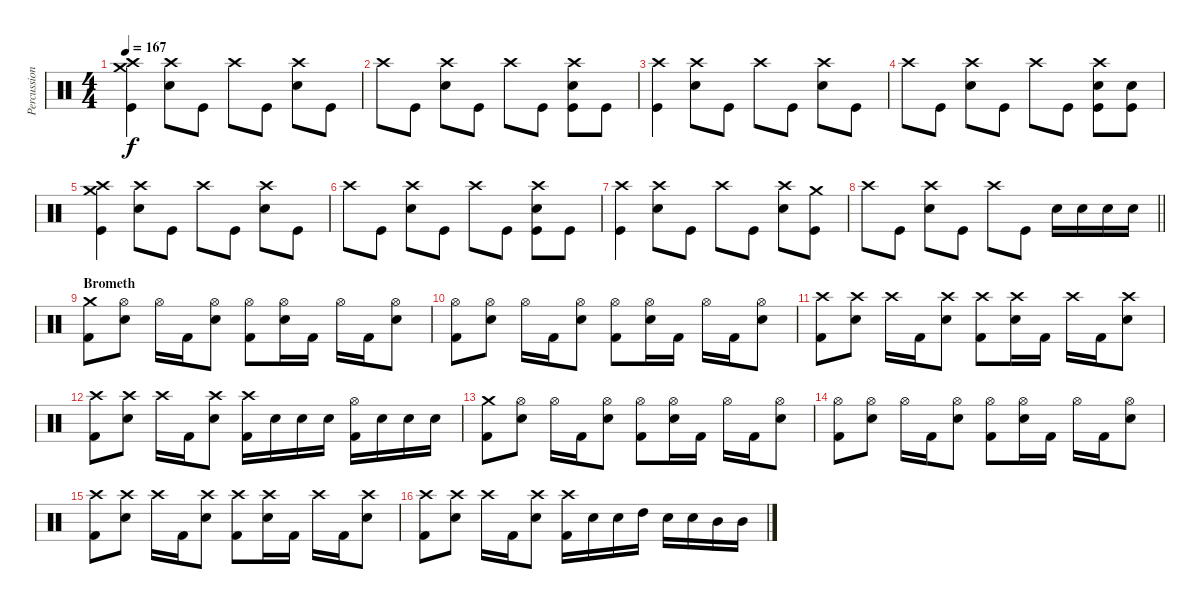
\track ("Percussion" "Percussion") {instrument percussion}
\staff {score}
\articulation defaults
\ts (4 4)
\tempo 167
\clef neutral
\ks c
("Crash medium (hit)" "Crash high (hit)" "Kick (hit)").4{dy f} ("Crash high (hit)" "Electric Snare (hit)").8 "Kick (hit)".8 "Crash high (hit)".8 "Kick (hit)".8 ("Crash high (hit)" "Electric Snare (hit)").8 "Kick (hit)".8 |
"Crash high (hit)".8 "Kick (hit)".8 ("Crash high (hit)" "Electric Snare (hit)").8 "Kick (hit)".8 "Crash high (hit)".8 "Kick (hit)".8 ("Crash high (hit)" "Electric Snare (hit)" "Kick (hit)").8 "Kick (hit)".8 |
("Crash high (hit)" "Kick (hit)").4 ("Crash high (hit)" "Electric Snare (hit)").8 "Kick (hit)".8 "Crash high (hit)".8 "Kick (hit)".8 ("Crash high (hit)" "Electric Snare (hit)").8 "Kick (hit)".8 |
"Crash high (hit)".8 "Kick (hit)".8 ("Crash high (hit)" "Electric Snare (hit)").8 "Kick (hit)".8 "Crash high (hit)".8 "Kick (hit)".8 ("Crash high (hit)" "Electric Snare (hit)" "Kick (hit)").8 ("Electric Snare (hit)" "Kick (hit)").8 |
("Crash medium (hit)" "Crash high (hit)" "Kick (hit)").4 ("Crash high (hit)" "Electric Snare (hit)").8 "Kick (hit)".8 "Crash high (hit)".8 "Kick (hit)".8 ("Crash high (hit)" "Electric Snare (hit)").8 "Kick (hit)".8 |
"Crash high (hit)".8 "Kick (hit)".8 ("Crash high (hit)" "Electric Snare (hit)").8 "Kick (hit)".8 "Crash high (hit)".8 "Kick (hit)".8 ("Crash high (hit)" "Electric Snare (hit)" "Kick (hit)").8 "Kick (hit)".8 |
("Crash high (hit)" "Kick (hit)").4 ("Crash high (hit)" "Electric Snare (hit)").8 "Kick (hit)".8 "Crash high (hit)".8 "Kick (hit)".8 ("Crash high (hit)" "Electric Snare (hit)").8 ("Crash medium (hit)" "Kick (hit)").8 |
\barLineRight lightlight "Crash high (hit)".8 "Kick (hit)".8
("Crash high (hit)" "Electric Snare (hit)").8 "Kick (hit)".8 "Crash high (hit)".8 "Kick (hit)".8 "Electric Snare (hit)".16 "Electric Snare (hit)".16 "Electric Snare (hit)".16 "Electric Snare (hit)".16 |
\section ("" "Brometh")
("Crash medium (hit)" "Kick (hit) 2").8 ("Hi-Hat (open)" "Electric Snare (hit)").8 "Hi-Hat (open)".16 "Kick (hit) 2".16 ("Hi-Hat (open)" "Electric Snare (hit)").8 ("Hi-Hat (open)" "Kick (hit) 2").8 ("Hi-Hat (open)" "Electric Snare (hit)").16 "Kick (hit) 2".16 "Hi-Hat (open)".16 "Kick (hit) 2".16 ("Hi-Hat (open)" "Electric Snare (hit)").8 |
("Hi-Hat (open)" "Kick (hit) 2").8 ("Hi-Hat (open)" "Electric Snare (hit)").8 "Hi-Hat (open)".16 "Kick (hit) 2".16 ("Hi-Hat (open)" "Electric Snare (hit)").8 ("Hi-Hat (open)" "Kick (hit) 2").8 ("Hi-Hat (open)" "Electric Snare (hit)").16 "Kick (hit) 2".16 "Hi-Hat (open)".16 "Kick (hit) 2".16 ("Hi-Hat (open)" "Electric Snare (hit)").8 |
("Crash high (hit)" "Kick (hit) 2").8 ("Crash high (hit)" "Electric Snare (hit)").8 "Crash high (hit)".16 "Kick (hit) 2".16 ("Crash high (hit)" "Electric Snare (hit)").8 ("Crash high (hit)" "Kick (hit) 2").8 ("Crash high (hit)" "Electric Snare (hit)").16 "Kick (hit) 2".16 "Crash high (hit)".16 "Kick (hit) 2".16 ("Crash high (hit)" "Electric Snare (hit)").8 |
("Crash high (hit)" "Kick (hit) 2").8 ("Crash high (hit)" "Electric Snare (hit)").8 "Crash high (hit)".16 "Kick (hit) 2".16 ("Crash high (hit)" "Electric Snare (hit)").8 ("Crash high (hit)" "Kick (hit) 2").16 "Electric Snare (hit)".16 "Electric Snare (hit)".16 "Electric Snare (hit)".16 ("Hi-Hat (open)" "Kick (hit) 2").16 "Electric Snare (hit)".16 "Electric Snare (hit)".16 "Electric Snare (hit)".16 |
("Crash medium (hit)" "Kick (hit) 2").8 ("Hi-Hat (open)" "Electric Snare (hit)").8 "Hi-Hat (open)".16 "Kick (hit) 2".16 ("Hi-Hat (open)" "Electric Snare (hit)").8 ("Hi-Hat (open)" "Kick (hit) 2").8 ("Hi-Hat (open)" "Electric Snare (hit)").16 "Kick (hit) 2".16 "Hi-Hat (open)".16 "Kick (hit) 2".16 ("Hi-Hat (open)" "Electric Snare (hit)").8 |
("Hi-Hat (open)" "Kick (hit) 2").8 ("Hi-Hat (open)" "Electric Snare (hit)").8 "Hi-Hat (open)".16 "Kick (hit) 2".16 ("Hi-Hat (open)" "Electric Snare (hit)").8 ("Hi-Hat (open)" "Kick (hit) 2").8 ("Hi-Hat (open)" "Electric Snare (hit)").16 "Kick (hit) 2".16 "Hi-Hat (open)".16 "Kick (hit) 2".16 ("Hi-Hat (open)" "Electric Snare (hit)").8 |
("Crash high (hit)" "Kick (hit) 2").8 ("Crash high (hit)" "Electric Snare (hit)").8 "Crash high (hit)".16 "Kick (hit) 2".16 ("Crash high (hit)" "Electric Snare (hit)").8 ("Crash high (hit)" "Kick (hit) 2").8 ("Crash high (hit)" "Electric Snare (hit)").16 "Kick (hit) 2".16 "Crash high (hit)".16 "Kick (hit) 2".16 ("Crash high (hit)" "Electric Snare (hit)").8 |
("Crash high (hit)" "Kick (hit) 2").8 ("Crash high (hit)" "Electric Snare (hit)").8 "Crash high (hit)".16 "Kick (hit) 2".16 ("Crash high (hit)" "Electric Snare (hit)").8 ("Crash high (hit)" "Kick (hit) 2").16 "Electric Snare (hit)".16 "Electric Snare (hit)".16 "High Tom (hit)".16 "Electric Snare (hit)".16 "Electric Snare (hit)".16 "Mid Tom (hit)".16 "Mid Tom (hit)".16
